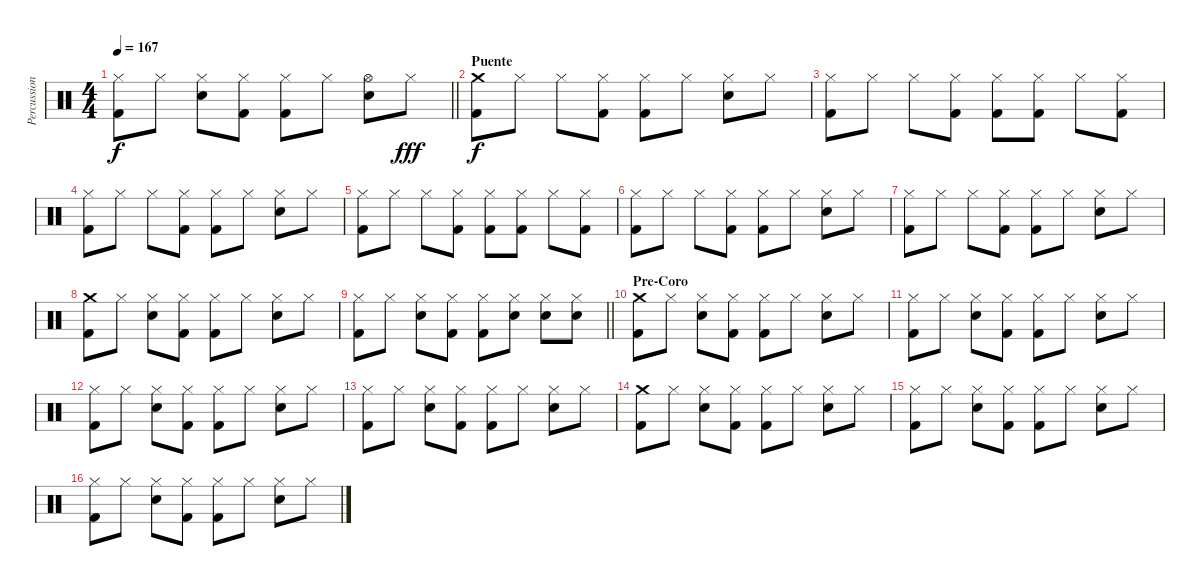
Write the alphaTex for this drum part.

\track ("Percussion" "Percussion") {instrument percussion}
\staff {score}
\articulation defaults
\ts (4 4)
\tempo 167
\clef neutral
\barLineRight lightlight
\ks c
("Hi-Hat (closed)" "Kick (hit) 2").8{dy f} "Hi-Hat (closed)".8 ("Hi-Hat (closed)" "Snare (hit) 2").8 ("Hi-Hat (closed)" "Kick (hit) 2").8 ("Hi-Hat (closed)" "Kick (hit) 2").8 "Hi-Hat (closed)".8 ("Hi-Hat (open)" "Snare (hit) 2").8 "Hi-Hat (closed)".8{dy fff} |
\section ("" "Puente")
("Crash medium (hit)" "Kick (hit) 2").8{dy f} "Hi-Hat (closed)".8 "Hi-Hat (closed)".8 ("Hi-Hat (closed)" "Kick (hit) 2").8 ("Hi-Hat (closed)" "Kick (hit) 2").8 "Hi-Hat (closed)".8 ("Hi-Hat (closed)" "Snare (hit) 2").8 "Hi-Hat (closed)".8 |
("Hi-Hat (closed)" "Kick (hit) 2").8 "Hi-Hat (closed)".8 "Hi-Hat (closed)".8 ("Hi-Hat (closed)" "Kick (hit) 2").8 ("Hi-Hat (closed)" "Kick (hit) 2").8 ("Hi-Hat (closed)" "Kick (hit) 2").8 "Hi-Hat (closed)".8 ("Hi-Hat (closed)" "Kick (hit) 2").8 |
("Hi-Hat (closed)" "Kick (hit) 2").8 "Hi-Hat (closed)".8 "Hi-Hat (closed)".8 ("Hi-Hat (closed)" "Kick (hit) 2").8 ("Hi-Hat (closed)" "Kick (hit) 2").8 "Hi-Hat (closed)".8 ("Hi-Hat (closed)" "Snare (hit) 2").8 "Hi-Hat (closed)".8 |
("Hi-Hat (closed)" "Kick (hit) 2").8 "Hi-Hat (closed)".8 "Hi-Hat (closed)".8 ("Hi-Hat (closed)" "Kick (hit) 2").8 ("Hi-Hat (closed)" "Kick (hit) 2").8 ("Hi-Hat (closed)" "Kick (hit) 2").8 "Hi-Hat (closed)".8 ("Hi-Hat (closed)" "Kick (hit) 2").8 |
("Hi-Hat (closed)" "Kick (hit) 2").8 "Hi-Hat (closed)".8 "Hi-Hat (closed)".8 ("Hi-Hat (closed)" "Kick (hit) 2").8 ("Hi-Hat (closed)" "Kick (hit) 2").8 "Hi-Hat (closed)".8 ("Hi-Hat (closed)" "Snare (hit) 2").8 "Hi-Hat (closed)".8 |
("Hi-Hat (closed)" "Kick (hit) 2").8 "Hi-Hat (closed)".8 "Hi-Hat (closed)".8 ("Hi-Hat (closed)" "Kick (hit) 2").8 ("Hi-Hat (closed)" "Kick (hit) 2").8 "Hi-Hat (closed)".8 ("Hi-Hat (closed)" "Snare (hit) 2").8 "Hi-Hat (closed)".8 |
("Crash medium (hit)" "Kick (hit) 2").8 "Hi-Hat (closed)".8 ("Hi-Hat (closed)" "Snare (hit) 2").8 ("Hi-Hat (closed)" "Kick (hit) 2").8 ("Hi-Hat (closed)" "Kick (hit) 2").8 "Hi-Hat (closed)".8 ("Hi-Hat (closed)" "Snare (hit) 2").8 "Hi-Hat (closed)".8 |
\barLineRight lightlight
("Hi-Hat (closed)" "Kick (hit) 2").8 "Hi-Hat (closed)".8 ("Hi-Hat (closed)" "Snare (hit) 2").8 ("Hi-Hat (closed)" "Kick (hit) 2").8 ("Hi-Hat (closed)" "Kick (hit) 2").8 ("Hi-Hat (closed)" "Snare (hit) 2").8 ("Hi-Hat (closed)" "Snare (hit) 2").8 ("Hi-Hat (closed)" "Snare (hit) 2").8 |
\section ("" "Pre-Coro")
("Crash medium (hit)" "Kick (hit) 2").8 "Hi-Hat (closed)".8 ("Hi-Hat (closed)" "Snare (hit) 2").8 ("Hi-Hat (closed)" "Kick (hit) 2").8 ("Hi-Hat (closed)" "Kick (hit) 2").8 "Hi-Hat (closed)".8 ("Hi-Hat (closed)" "Snare (hit) 2").8 "Hi-Hat (closed)".8 |
("Hi-Hat (closed)" "Kick (hit) 2").8 "Hi-Hat (closed)".8 ("Hi-Hat (closed)" "Snare (hit) 2").8 ("Hi-Hat (closed)" "Kick (hit) 2").8 ("Hi-Hat (closed)" "Kick (hit) 2").8 "Hi-Hat (closed)".8 ("Hi-Hat (closed)" "Snare (hit) 2").8 "Hi-Hat (closed)".8 |
("Hi-Hat (closed)" "Kick (hit) 2").8 "Hi-Hat (closed)".8 ("Hi-Hat (closed)" "Snare (hit) 2").8 ("Hi-Hat (closed)" "Kick (hit) 2").8 ("Hi-Hat (closed)" "Kick (hit) 2").8 "Hi-Hat (closed)".8 ("Hi-Hat (closed)" "Snare (hit) 2").8 "Hi-Hat (closed)".8 |
("Hi-Hat (closed)" "Kick (hit) 2").8 "Hi-Hat (closed)".8 ("Hi-Hat (closed)" "Snare (hit) 2").8 ("Hi-Hat (closed)" "Kick (hit) 2").8 ("Hi-Hat (closed)" "Kick (hit) 2").8 "Hi-Hat (closed)".8 ("Hi-Hat (closed)" "Snare (hit) 2").8 "Hi-Hat (closed)".8 |
("Crash medium (hit)" "Kick (hit) 2").8 "Hi-Hat (closed)".8 ("Hi-Hat (closed)" "Snare (hit) 2").8 ("Hi-Hat (closed)" "Kick (hit) 2").8 ("Hi-Hat (closed)" "Kick (hit) 2").8 "Hi-Hat (closed)".8 ("Hi-Hat (closed)" "Snare (hit) 2").8 "Hi-Hat (closed)".8 |
("Hi-Hat (closed)" "Kick (hit) 2").8 "Hi-Hat (closed)".8 ("Hi-Hat (closed)" "Snare (hit) 2").8 ("Hi-Hat (closed)" "Kick (hit) 2").8 ("Hi-Hat (closed)" "Kick (hit) 2").8 "Hi-Hat (closed)".8 ("Hi-Hat (closed)" "Snare (hit) 2").8 "Hi-Hat (closed)".8 |
("Hi-Hat (closed)" "Kick (hit) 2").8 "Hi-Hat (closed)".8 ("Hi-Hat (closed)" "Snare (hit) 2").8 ("Hi-Hat (closed)" "Kick (hit) 2").8 ("Hi-Hat (closed)" "Kick (hit) 2").8 "Hi-Hat (closed)".8 ("Hi-Hat (closed)" "Snare (hit) 2").8 "Hi-Hat (closed)".8
